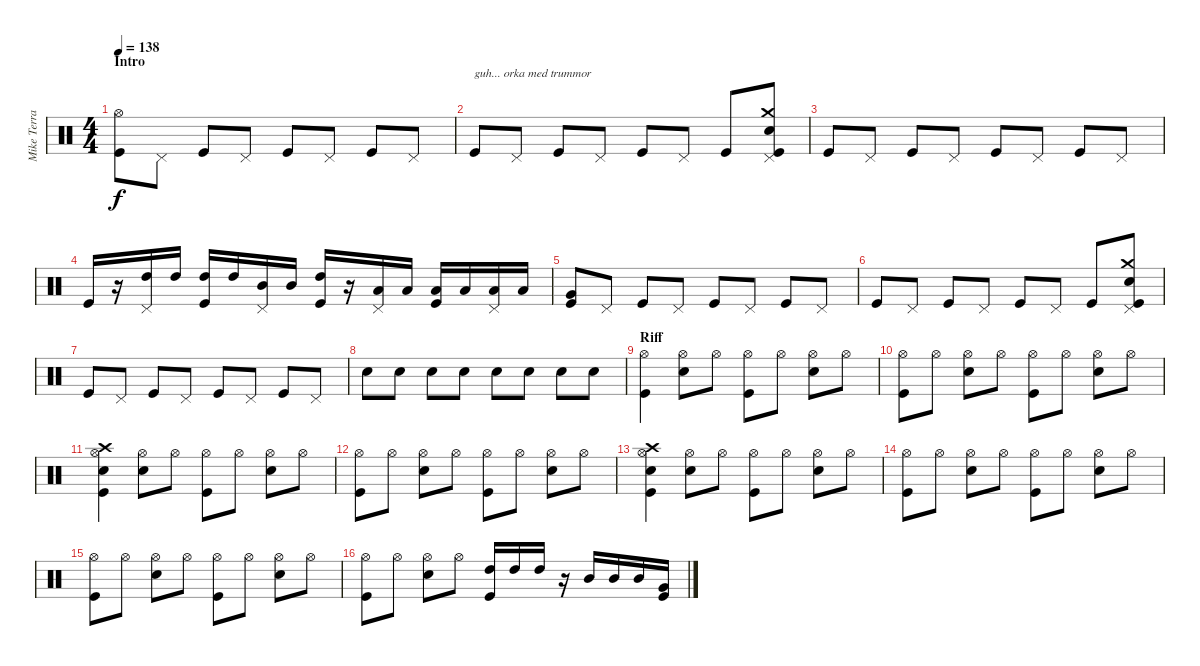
\track ("Mike Terrana" "Mike Terra") {instrument percussion}
\staff {score}
\articulation defaults
\ts (4 4)
\section ("" "Intro")
\tempo 138
\clef neutral
\ks c
("Hi-Hat (open)" "Kick (hit)").8{dy f} "Pedal Hi-Hat (hit)".8 "Kick (hit)".8 "Pedal Hi-Hat (hit)".8 "Kick (hit)".8 "Pedal Hi-Hat (hit)".8 "Kick (hit)".8 "Pedal Hi-Hat (hit)".8 |
"Kick (hit)".8{txt "guh... orka med trummor"} "Pedal Hi-Hat (hit)".8 "Kick (hit)".8 "Pedal Hi-Hat (hit)".8 "Kick (hit)".8 "Pedal Hi-Hat (hit)".8 "Kick (hit)".8 ("Pedal Hi-Hat (hit)" "Crash medium (hit)" "Snare (hit) 2" "Kick (hit)").8 |
"Kick (hit)".8 "Pedal Hi-Hat (hit)".8 "Kick (hit)".8 "Pedal Hi-Hat (hit)".8 "Kick (hit)".8 "Pedal Hi-Hat (hit)".8 "Kick (hit)".8 "Pedal Hi-Hat (hit)".8 |
"Kick (hit)".16 r.16 ("Pedal Hi-Hat (hit)" "High Tom (hit)").16 "High Tom (hit)".16 ("High Tom (hit)" "Kick (hit)").16 "High Tom (hit)".16 ("Pedal Hi-Hat (hit)" "Mid Tom (hit)").16 "Mid Tom (hit)".16 ("High Tom (hit)" "Kick (hit)").16 r.16 ("Pedal Hi-Hat (hit)" "Low Tom (hit)").16 "Low Tom (hit)".16 ("Low Tom (hit)" "Kick (hit)").16 "Low Tom (hit)".16 ("Pedal Hi-Hat (hit)" "Low Tom (hit)").16 "Low Tom (hit)".16 |
("Very Low Tom (hit)" "Kick (hit)").8 "Pedal Hi-Hat (hit)".8 "Kick (hit)".8 "Pedal Hi-Hat (hit)".8 "Kick (hit)".8 "Pedal Hi-Hat (hit)".8 "Kick (hit)".8 "Pedal Hi-Hat (hit)".8 |
"Kick (hit)".8 "Pedal Hi-Hat (hit)".8 "Kick (hit)".8 "Pedal Hi-Hat (hit)".8 "Kick (hit)".8 "Pedal Hi-Hat (hit)".8 "Kick (hit)".8 ("Pedal Hi-Hat (hit)" "Crash medium (hit)" "Snare (hit) 2" "Kick (hit)").8 |
"Kick (hit)".8 "Pedal Hi-Hat (hit)".8 "Kick (hit)".8 "Pedal Hi-Hat (hit)".8 "Kick (hit)".8 "Pedal Hi-Hat (hit)".8 "Kick (hit)".8 "Pedal Hi-Hat (hit)".8 |
"Snare (hit) 2".8 "Snare (hit) 2".8 "Snare (hit) 2".8 "Snare (hit) 2".8 "Snare (hit) 2".8 "Snare (hit) 2".8 "Snare (hit) 2".8 "Snare (hit) 2".8 |
\section ("" "Riff")
("Hi-Hat (open)" "Kick (hit)").4 ("Hi-Hat (open)" "Snare (hit) 2").8 "Hi-Hat (open)".8 ("Hi-Hat (open)" "Kick (hit)").8 "Hi-Hat (open)".8 ("Hi-Hat (open)" "Snare (hit) 2").8 "Hi-Hat (open)".8 |
("Hi-Hat (open)" "Kick (hit)").8 "Hi-Hat (open)".8 ("Hi-Hat (open)" "Snare (hit) 2").8 "Hi-Hat (open)".8 ("Hi-Hat (open)" "Kick (hit)").8 "Hi-Hat (open)".8 ("Hi-Hat (open)" "Snare (hit) 2").8 "Hi-Hat (open)".8 |
("Crash high (hit)" "Hi-Hat (open)" "Snare (hit) 2" "Kick (hit)").4 ("Hi-Hat (open)" "Snare (hit) 2").8 "Hi-Hat (open)".8 ("Hi-Hat (open)" "Kick (hit)").8 "Hi-Hat (open)".8 ("Hi-Hat (open)" "Snare (hit) 2").8 "Hi-Hat (open)".8 |
("Hi-Hat (open)" "Kick (hit)").8 "Hi-Hat (open)".8 ("Hi-Hat (open)" "Snare (hit) 2").8 "Hi-Hat (open)".8 ("Hi-Hat (open)" "Kick (hit)").8 "Hi-Hat (open)".8 ("Hi-Hat (open)" "Snare (hit) 2").8 "Hi-Hat (open)".8 |
("Crash high (hit)" "Hi-Hat (open)" "Snare (hit) 2" "Kick (hit)").4 ("Hi-Hat (open)" "Snare (hit) 2").8 "Hi-Hat (open)".8 ("Hi-Hat (open)" "Kick (hit)").8 "Hi-Hat (open)".8 ("Hi-Hat (open)" "Snare (hit) 2").8 "Hi-Hat (open)".8 |
("Hi-Hat (open)" "Kick (hit)").8 "Hi-Hat (open)".8 ("Hi-Hat (open)" "Snare (hit) 2").8 "Hi-Hat (open)".8 ("Hi-Hat (open)" "Kick (hit)").8 "Hi-Hat (open)".8 ("Hi-Hat (open)" "Snare (hit) 2").8 "Hi-Hat (open)".8 |
("Hi-Hat (open)" "Kick (hit)").8 "Hi-Hat (open)".8 ("Hi-Hat (open)" "Snare (hit) 2").8 "Hi-Hat (open)".8 ("Hi-Hat (open)" "Kick (hit)").8 "Hi-Hat (open)".8 ("Hi-Hat (open)" "Snare (hit) 2").8 "Hi-Hat (open)".8 |
("Hi-Hat (open)" "Kick (hit)").8 "Hi-Hat (open)".8 ("Hi-Hat (open)" "Snare (hit) 2").8 "Hi-Hat (open)".8 ("High Tom (hit)" "Kick (hit)").16 "High Tom (hit)".16 "High Tom (hit)".16 r.16 "Mid Tom (hit)".16 "Mid Tom (hit)".16 "Mid Tom (hit)".16 ("Very Low Tom (hit)" "Kick (hit)").16
